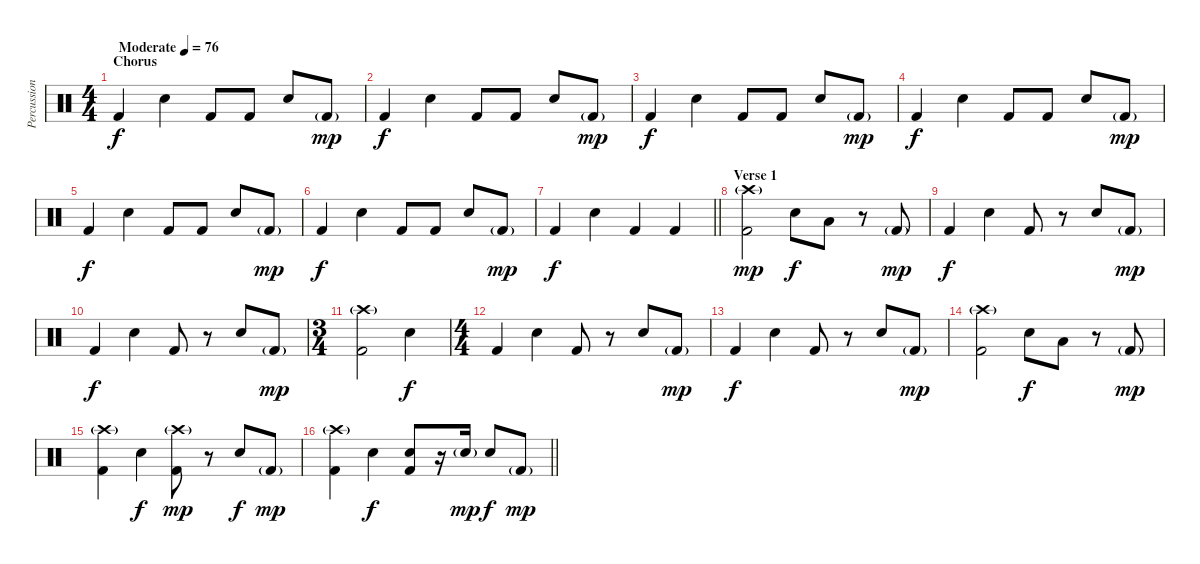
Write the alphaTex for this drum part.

\track ("Percussion" "Percussion") {instrument percussion}
\staff {score}
\articulation defaults
\ts (4 4)
\section ("" "Chorus")
\tempo (76 "Moderate")
\clef neutral
\ks c "Kick (hit) 2".4{dy f} "Snare (hit) 2".4 "Kick (hit) 2".8 "Kick (hit) 2".8 "Snare (hit) 2".8 "Kick (hit) 2"{g}.8{dy mp}
|
"Kick (hit) 2".4{dy f} "Snare (hit) 2".4 "Kick (hit) 2".8 "Kick (hit) 2".8 "Snare (hit) 2".8 "Kick (hit) 2"{g}.8{dy mp} |
"Kick (hit) 2".4{dy f} "Snare (hit) 2".4 "Kick (hit) 2".8 "Kick (hit) 2".8 "Snare (hit) 2".8 "Kick (hit) 2"{g}.8{dy mp} |
"Kick (hit) 2".4{dy f} "Snare (hit) 2".4 "Kick (hit) 2".8 "Kick (hit) 2".8 "Snare (hit) 2".8 "Kick (hit) 2"{g}.8{dy mp} |
"Kick (hit) 2".4{dy f} "Snare (hit) 2".4 "Kick (hit) 2".8 "Kick (hit) 2".8 "Snare (hit) 2".8 "Kick (hit) 2"{g}.8{dy mp} |
"Kick (hit) 2".4{dy f} "Snare (hit) 2".4 "Kick (hit) 2".8 "Kick (hit) 2".8 "Snare (hit) 2".8 "Kick (hit) 2"{g}.8{dy mp} |
\barLineRight lightlight "Kick (hit) 2".4{dy f} "Snare (hit) 2".4 "Kick (hit) 2".4 "Kick (hit) 2".4
|
\section ("" "Verse 1")
("Crash high (hit)"{g} "Kick (hit) 2").2{dy mp} "Snare (hit) 2".8{dy f} "Low Floor Tom (hit)".8 r.8 "Kick (hit) 2"{g}.8{dy mp} |
"Kick (hit) 2".4{dy f} "Snare (hit) 2".4 "Kick (hit) 2".8 r.8 "Snare (hit) 2".8 "Kick (hit) 2"{g}.8{dy mp} |
"Kick (hit) 2".4{dy f} "Snare (hit) 2".4 "Kick (hit) 2".8 r.8 "Snare (hit) 2".8 "Kick (hit) 2"{g}.8{dy mp} |
\ts (3 4)
("Crash high (hit)"{g} "Kick (hit) 2").2 "Snare (hit) 2".4{dy f} |
\ts (4 4)
"Kick (hit) 2".4 "Snare (hit) 2".4 "Kick (hit) 2".8 r.8 "Snare (hit) 2".8 "Kick (hit) 2"{g}.8{dy mp} |
"Kick (hit) 2".4{dy f} "Snare (hit) 2".4 "Kick (hit) 2".8 r.8 "Snare (hit) 2".8 "Kick (hit) 2"{g}.8{dy mp} |
("Crash high (hit)"{g} "Kick (hit) 2").2 "Snare (hit) 2".8{dy f} "Low Floor Tom (hit)".8 r.8 "Kick (hit) 2"{g}.8{dy mp} |
("Crash high (hit)"{g} "Kick (hit) 2").4 "Snare (hit) 2".4{dy f} ("Crash high (hit)"{g} "Kick (hit) 2").8{dy mp} r.8 "Snare (hit) 2".8{dy f} "Kick (hit) 2"{g}.8{dy mp} |
\barLineRight lightlight
("Crash high (hit)"{g} "Kick (hit) 2").4 "Snare (hit) 2".4{dy f} ("Snare (hit) 2" "Kick (hit) 2").8 r.16 "Snare (hit) 2"{g}.16{dy mp} "Snare (hit) 2".8{dy f} "Kick (hit) 2"{g}.8{dy mp}
